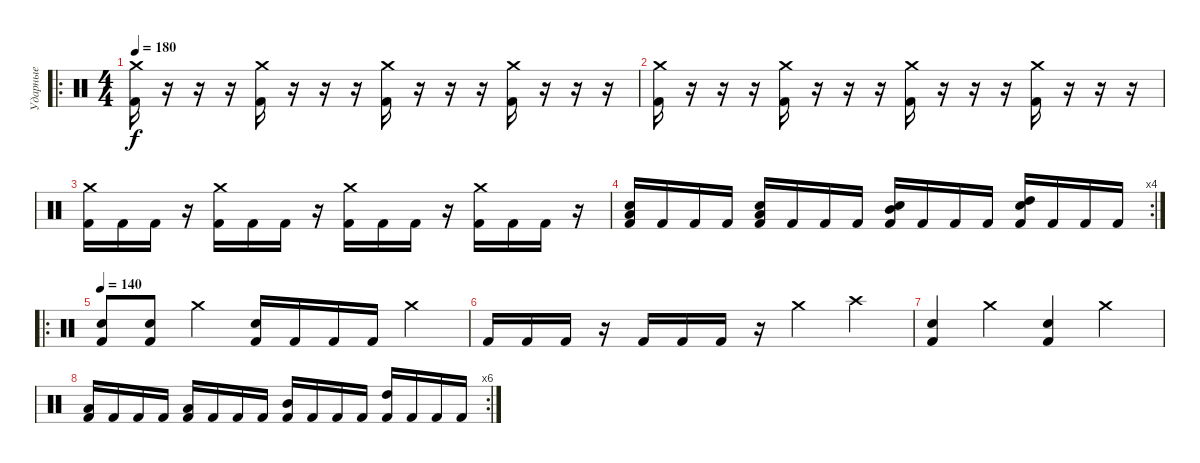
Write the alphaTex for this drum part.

\track ("Ударные" "Ударные") {instrument percussion}
\staff {score}
\articulation defaults
\ro
\ts (4 4)
\tempo 180
\clef neutral
\ks c
("Crash medium (hit)" "Kick (hit) 2").16{dy f} r.16 r.16 r.16 ("Crash medium (hit)" "Kick (hit) 2").16 r.16 r.16 r.16 ("Crash medium (hit)" "Kick (hit) 2").16 r.16 r.16 r.16 ("Crash medium (hit)" "Kick (hit) 2").16 r.16 r.16 r.16 |
("Crash medium (hit)" "Kick (hit) 2").16 r.16 r.16 r.16 ("Crash medium (hit)" "Kick (hit) 2").16 r.16 r.16 r.16 ("Crash medium (hit)" "Kick (hit) 2").16 r.16 r.16 r.16 ("Crash medium (hit)" "Kick (hit) 2").16 r.16 r.16 r.16 |
("Crash medium (hit)" "Kick (hit) 2").16 "Kick (hit) 2".16 "Kick (hit) 2".16 r.16 ("Crash medium (hit)" "Kick (hit) 2").16 "Kick (hit) 2".16 "Kick (hit) 2".16 r.16 ("Crash medium (hit)" "Kick (hit) 2").16 "Kick (hit) 2".16 "Kick (hit) 2".16 r.16 ("Crash medium (hit)" "Kick (hit) 2").16 "Kick (hit) 2".16 "Kick (hit) 2".16 r.16 |
\rc 4
("Low Tom (hit)" "Snare (hit) 2" "Kick (hit) 2").16 "Kick (hit) 2".16 "Kick (hit) 2".16 "Kick (hit) 2".16 ("Low Tom (hit)" "Snare (hit) 2" "Kick (hit) 2").16 "Kick (hit) 2".16 "Kick (hit) 2".16 "Kick (hit) 2".16 ("Mid Tom (hit)" "Snare (hit) 2" "Kick (hit) 2").16 "Kick (hit) 2".16 "Kick (hit) 2".16 "Kick (hit) 2".16 ("High Tom (hit)" "Snare (hit) 2" "Kick (hit) 2").16 "Kick (hit) 2".16 "Kick (hit) 2".16 "Kick (hit) 2".16 |
\ro
\tempo 140
("Snare (hit) 2" "Kick (hit) 2").8 ("Snare (hit) 2" "Kick (hit) 2").8 "Crash medium (hit)".4 ("Snare (hit) 2" "Kick (hit) 2").16 "Kick (hit) 2".16 "Kick (hit) 2".16 "Kick (hit) 2".16 "Crash medium (hit)".4 |
"Kick (hit) 2".16 "Kick (hit) 2".16 "Kick (hit) 2".16 r.16 "Kick (hit) 2".16 "Kick (hit) 2".16 "Kick (hit) 2".16 r.16 "Crash medium (hit)".4 "Crash high (hit)".4 |
("Snare (hit) 2" "Kick (hit) 2").4 "Crash medium (hit)".4 ("Snare (hit) 2" "Kick (hit) 2").4 "Crash medium (hit)".4 |
\rc 6
("Low Tom (hit)" "Kick (hit) 2").16 "Kick (hit) 2".16 "Kick (hit) 2".16 "Kick (hit) 2".16 ("Low Tom (hit)" "Kick (hit) 2").16 "Kick (hit) 2".16 "Kick (hit) 2".16 "Kick (hit) 2".16 ("Mid Tom (hit)" "Kick (hit) 2").16 "Kick (hit) 2".16 "Kick (hit) 2".16 "Kick (hit) 2".16 ("High Tom (hit)" "Kick (hit) 2").16 "Kick (hit) 2".16 "Kick (hit) 2".16 "Kick (hit) 2".16
